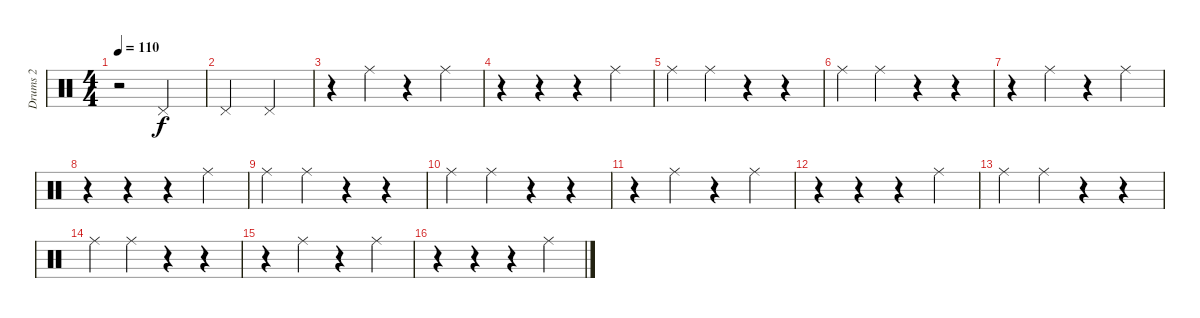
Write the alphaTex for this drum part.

\track ("Drums 2" "Drums 2") {instrument percussion}
\staff {score}
\articulation defaults
\ts (4 4)
\tempo 95
\tempo 110
\clef neutral
\ks c
r.2{dy f} "Pedal Hi-Hat (hit)".2 |
"Pedal Hi-Hat (hit)".2 "Pedal Hi-Hat (hit)".2 |
r.4 "Ride (middle)".4 r.4 "Ride (middle)".4 |
r.4 r.4 r.4 "Ride (middle)".4 |
"Ride (middle)".4 "Ride (middle)".4 r.4 r.4 |
"Ride (middle)".4 "Ride (middle)".4 r.4 r.4 |
r.4 "Ride (middle)".4 r.4 "Ride (middle)".4 |
r.4 r.4 r.4 "Ride (middle)".4 |
"Ride (middle)".4 "Ride (middle)".4 r.4 r.4 |
"Ride (middle)".4 "Ride (middle)".4 r.4 r.4 |
r.4 "Ride (middle)".4 r.4 "Ride (middle)".4 |
r.4 r.4 r.4 "Ride (middle)".4 |
"Ride (middle)".4 "Ride (middle)".4 r.4 r.4 |
"Ride (middle)".4 "Ride (middle)".4 r.4 r.4 |
r.4 "Ride (middle)".4 r.4 "Ride (middle)".4 |
r.4 r.4 r.4 "Ride (middle)".4
